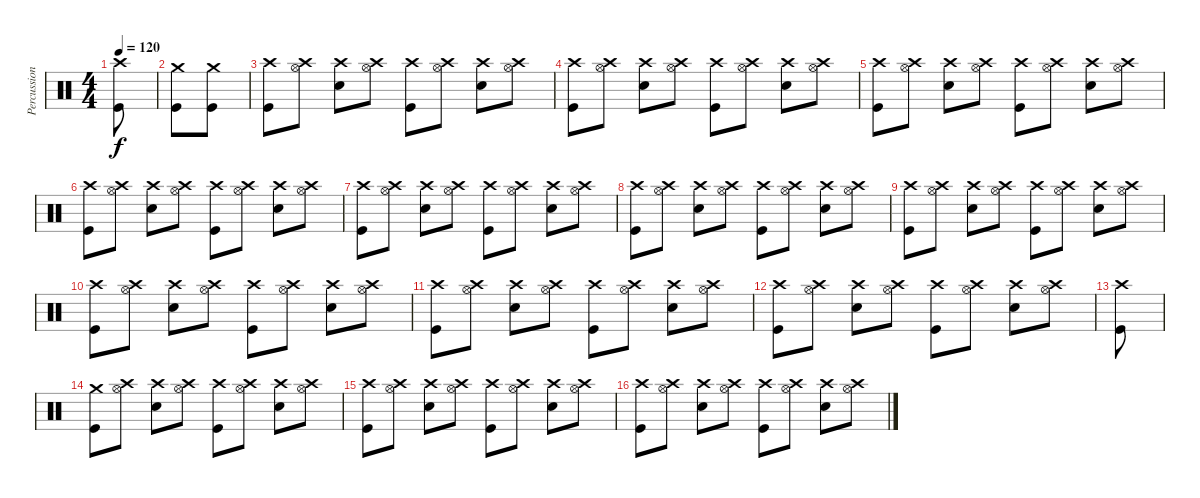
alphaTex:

\track ("Percussion" "Percussion") {instrument percussion}
\staff {score}
\articulation defaults
\ts (4 4)
\tempo 120
\clef neutral
\ks c
("Crash high (hit)" "Kick (hit)").8{dy f} |
("Crash medium (hit)" "Kick (hit)").8 ("Crash medium (hit)" "Kick (hit)").8 |
("Crash high (hit)" "Kick (hit)").8 ("Crash high (hit)" "Hi-Hat (open)").8 ("Crash high (hit)" "Snare (hit) 2").8 ("Crash high (hit)" "Hi-Hat (open)").8 ("Crash high (hit)" "Kick (hit)").8 ("Crash high (hit)" "Hi-Hat (open)").8 ("Crash high (hit)" "Snare (hit) 2").8 ("Crash high (hit)" "Hi-Hat (open)").8 |
("Crash high (hit)" "Kick (hit)").8 ("Crash high (hit)" "Hi-Hat (open)").8 ("Crash high (hit)" "Snare (hit) 2").8 ("Crash high (hit)" "Hi-Hat (open)").8 ("Crash high (hit)" "Kick (hit)").8 ("Crash high (hit)" "Hi-Hat (open)").8 ("Crash high (hit)" "Snare (hit) 2").8 ("Crash high (hit)" "Hi-Hat (open)").8 |
("Crash high (hit)" "Kick (hit)").8 ("Crash high (hit)" "Hi-Hat (open)").8 ("Crash high (hit)" "Snare (hit) 2").8 ("Crash high (hit)" "Hi-Hat (open)").8 ("Crash high (hit)" "Kick (hit)").8 ("Crash high (hit)" "Hi-Hat (open)").8 ("Crash high (hit)" "Snare (hit) 2").8 ("Crash high (hit)" "Hi-Hat (open)").8 |
("Crash high (hit)" "Kick (hit)").8 ("Crash high (hit)" "Hi-Hat (open)").8 ("Crash high (hit)" "Snare (hit) 2").8 ("Crash high (hit)" "Hi-Hat (open)").8 ("Crash high (hit)" "Kick (hit)").8 ("Crash high (hit)" "Hi-Hat (open)").8 ("Crash high (hit)" "Snare (hit) 2").8 ("Crash high (hit)" "Hi-Hat (open)").8 |
("Crash high (hit)" "Kick (hit)").8 ("Crash high (hit)" "Hi-Hat (open)").8 ("Crash high (hit)" "Snare (hit) 2").8 ("Crash high (hit)" "Hi-Hat (open)").8 ("Crash high (hit)" "Kick (hit)").8 ("Crash high (hit)" "Hi-Hat (open)").8 ("Crash high (hit)" "Snare (hit) 2").8 ("Crash high (hit)" "Hi-Hat (open)").8 |
("Crash high (hit)" "Kick (hit)").8 ("Crash high (hit)" "Hi-Hat (open)").8 ("Crash high (hit)" "Snare (hit) 2").8 ("Crash high (hit)" "Hi-Hat (open)").8 ("Crash high (hit)" "Kick (hit)").8 ("Crash high (hit)" "Hi-Hat (open)").8 ("Crash high (hit)" "Snare (hit) 2").8 ("Crash high (hit)" "Hi-Hat (open)").8 |
("Crash high (hit)" "Kick (hit)").8 ("Crash high (hit)" "Hi-Hat (open)").8 ("Crash high (hit)" "Snare (hit) 2").8 ("Crash high (hit)" "Hi-Hat (open)").8 ("Crash high (hit)" "Kick (hit)").8 ("Crash high (hit)" "Hi-Hat (open)").8 ("Crash high (hit)" "Snare (hit) 2").8 ("Crash high (hit)" "Hi-Hat (open)").8 |
("Crash high (hit)" "Kick (hit)").8 ("Crash high (hit)" "Hi-Hat (open)").8 ("Crash high (hit)" "Snare (hit) 2").8 ("Crash high (hit)" "Hi-Hat (open)").8 ("Crash high (hit)" "Kick (hit)").8 ("Crash high (hit)" "Hi-Hat (open)").8 ("Crash high (hit)" "Snare (hit) 2").8 ("Crash high (hit)" "Hi-Hat (open)").8 |
("Crash high (hit)" "Kick (hit)").8 ("Crash high (hit)" "Hi-Hat (open)").8 ("Crash high (hit)" "Snare (hit) 2").8 ("Crash high (hit)" "Hi-Hat (open)").8 ("Crash high (hit)" "Kick (hit)").8 ("Crash high (hit)" "Hi-Hat (open)").8 ("Crash high (hit)" "Snare (hit) 2").8 ("Crash high (hit)" "Hi-Hat (open)").8 |
("Crash high (hit)" "Kick (hit)").8 ("Crash high (hit)" "Hi-Hat (open)").8 ("Crash high (hit)" "Snare (hit) 2").8 ("Crash high (hit)" "Hi-Hat (open)").8 ("Crash high (hit)" "Kick (hit)").8 ("Crash high (hit)" "Hi-Hat (open)").8 ("Crash high (hit)" "Snare (hit) 2").8 ("Crash high (hit)" "Hi-Hat (open)").8 |
("Crash high (hit)" "Kick (hit)").8 |
("Crash medium (hit)" "Kick (hit)").8 ("Crash high (hit)" "Hi-Hat (open)").8 ("Crash high (hit)" "Snare (hit) 2").8 ("Crash high (hit)" "Hi-Hat (open)").8 ("Crash high (hit)" "Kick (hit)").8 ("Crash high (hit)" "Hi-Hat (open)").8 ("Crash high (hit)" "Snare (hit) 2").8 ("Crash high (hit)" "Hi-Hat (open)").8 |
("Crash high (hit)" "Kick (hit)").8 ("Crash high (hit)" "Hi-Hat (open)").8 ("Crash high (hit)" "Snare (hit) 2").8 ("Crash high (hit)" "Hi-Hat (open)").8 ("Crash high (hit)" "Kick (hit)").8 ("Crash high (hit)" "Hi-Hat (open)").8 ("Crash high (hit)" "Snare (hit) 2").8 ("Crash high (hit)" "Hi-Hat (open)").8 |
("Crash high (hit)" "Kick (hit)").8 ("Crash high (hit)" "Hi-Hat (open)").8 ("Crash high (hit)" "Snare (hit) 2").8 ("Crash high (hit)" "Hi-Hat (open)").8 ("Crash high (hit)" "Kick (hit)").8 ("Crash high (hit)" "Hi-Hat (open)").8 ("Crash high (hit)" "Snare (hit) 2").8 ("Crash high (hit)" "Hi-Hat (open)").8
